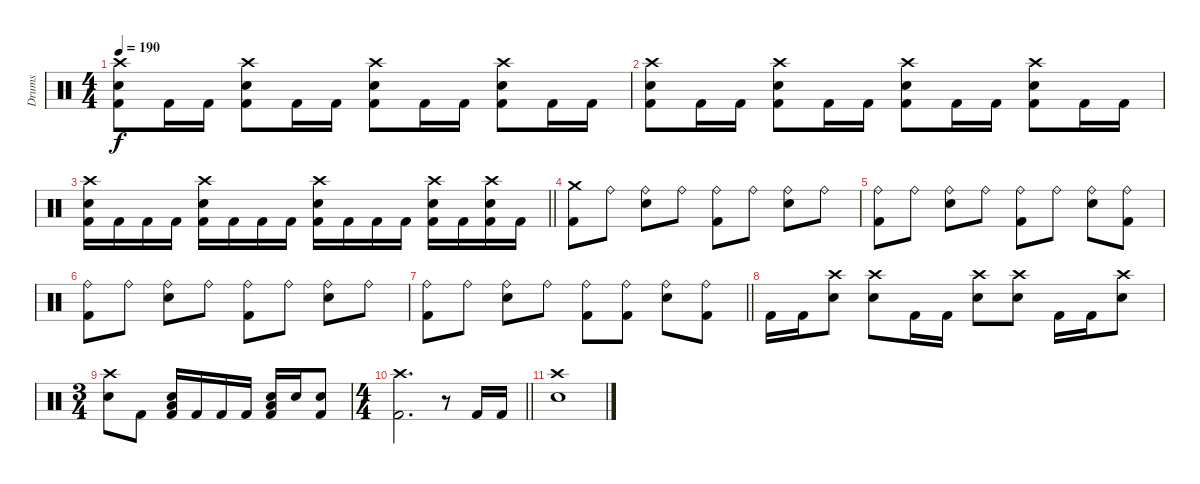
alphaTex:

\track ("Drums" "Drums") {instrument percussion}
\staff {score}
\articulation defaults
\ts (4 4)
\tempo 190
\clef neutral
\ks c
("Crash high (hit)" "Snare (hit) 2" "Kick (hit) 2").8{dy f} "Kick (hit) 2".16 "Kick (hit) 2".16 ("Crash high (hit)" "Snare (hit) 2" "Kick (hit) 2").8 "Kick (hit) 2".16 "Kick (hit) 2".16 ("Crash high (hit)" "Snare (hit) 2" "Kick (hit) 2").8 "Kick (hit) 2".16 "Kick (hit) 2".16 ("Crash high (hit)" "Snare (hit) 2" "Kick (hit) 2").8 "Kick (hit) 2".16 "Kick (hit) 2".16 |
("Crash high (hit)" "Snare (hit) 2" "Kick (hit) 2").8 "Kick (hit) 2".16 "Kick (hit) 2".16 ("Crash high (hit)" "Snare (hit) 2" "Kick (hit) 2").8 "Kick (hit) 2".16 "Kick (hit) 2".16 ("Crash high (hit)" "Snare (hit) 2" "Kick (hit) 2").8 "Kick (hit) 2".16 "Kick (hit) 2".16 ("Crash high (hit)" "Snare (hit) 2" "Kick (hit) 2").8 "Kick (hit) 2".16 "Kick (hit) 2".16 |
\barLineRight lightlight
("Crash high (hit)" "Snare (hit) 2" "Kick (hit) 2").16 "Kick (hit) 2".16 "Kick (hit) 2".16 "Kick (hit) 2".16 ("Crash high (hit)" "Snare (hit) 2" "Kick (hit) 2").16 "Kick (hit) 2".16 "Kick (hit) 2".16 "Kick (hit) 2".16 ("Crash high (hit)" "Snare (hit) 2" "Kick (hit) 2").16 "Kick (hit) 2".16 "Kick (hit) 2".16 "Kick (hit) 2".16 ("Crash high (hit)" "Snare (hit) 2" "Kick (hit) 2").16 "Kick (hit) 2".16 ("Crash high (hit)" "Snare (hit) 2" "Kick (hit) 2").16 "Kick (hit) 2".16 |
("Crash medium (hit)" "Kick (hit) 2").8 "Ride (bell)".8 ("Ride (bell)" "Snare (hit) 2").8 "Ride (bell)".8 ("Ride (bell)" "Kick (hit) 2").8 "Ride (bell)".8 ("Ride (bell)" "Snare (hit) 2").8 "Ride (bell)".8 |
("Ride (bell)" "Kick (hit) 2").8 "Ride (bell)".8 ("Ride (bell)" "Snare (hit) 2").8 "Ride (bell)".8 ("Ride (bell)" "Kick (hit) 2").8 "Ride (bell)".8 ("Ride (bell)" "Snare (hit) 2").8 ("Ride (bell)" "Kick (hit) 2").8 |
("Ride (bell)" "Kick (hit) 2").8 "Ride (bell)".8 ("Ride (bell)" "Snare (hit) 2").8 "Ride (bell)".8 ("Ride (bell)" "Kick (hit) 2").8 "Ride (bell)".8 ("Ride (bell)" "Snare (hit) 2").8 "Ride (bell)".8 |
\barLineRight lightlight
("Ride (bell)" "Kick (hit) 2").8 "Ride (bell)".8 ("Ride (bell)" "Snare (hit) 2").8 "Ride (bell)".8 ("Ride (bell)" "Kick (hit) 2").8 ("Ride (bell)" "Kick (hit) 2").8 ("Ride (bell)" "Snare (hit) 2").8 ("Ride (bell)" "Kick (hit) 2").8 |
"Kick (hit) 2".16 "Kick (hit) 2".16 ("Crash high (hit)" "Snare (hit) 2").8 ("Crash high (hit)" "Snare (hit) 2").8 "Kick (hit) 2".16 "Kick (hit) 2".16 ("Crash high (hit)" "Snare (hit) 2").8 ("Crash high (hit)" "Snare (hit) 2").8 "Kick (hit) 2".16 "Kick (hit) 2".16 ("Crash high (hit)" "Snare (hit) 2").8 |
\ts (3 4)
("Crash high (hit)" "Snare (hit) 2").8 "Kick (hit) 2".8 ("Low Floor Tom (hit)" "Snare (hit) 2" "Kick (hit) 2").16 "Kick (hit) 2".16 "Kick (hit) 2".16 "Kick (hit) 2".16 ("Low Floor Tom (hit)" "Snare (hit) 2" "Kick (hit) 2").16 "Snare (hit) 2".16 ("Snare (hit) 2" "Kick (hit) 2").8 |
\ts (4 4)
\barLineRight lightlight
("Crash high (hit)" "Kick (hit) 2").2{d} r.8 "Kick (hit) 2".16 "Kick (hit) 2".16 |
("Crash high (hit)" "Snare (hit) 2").1
